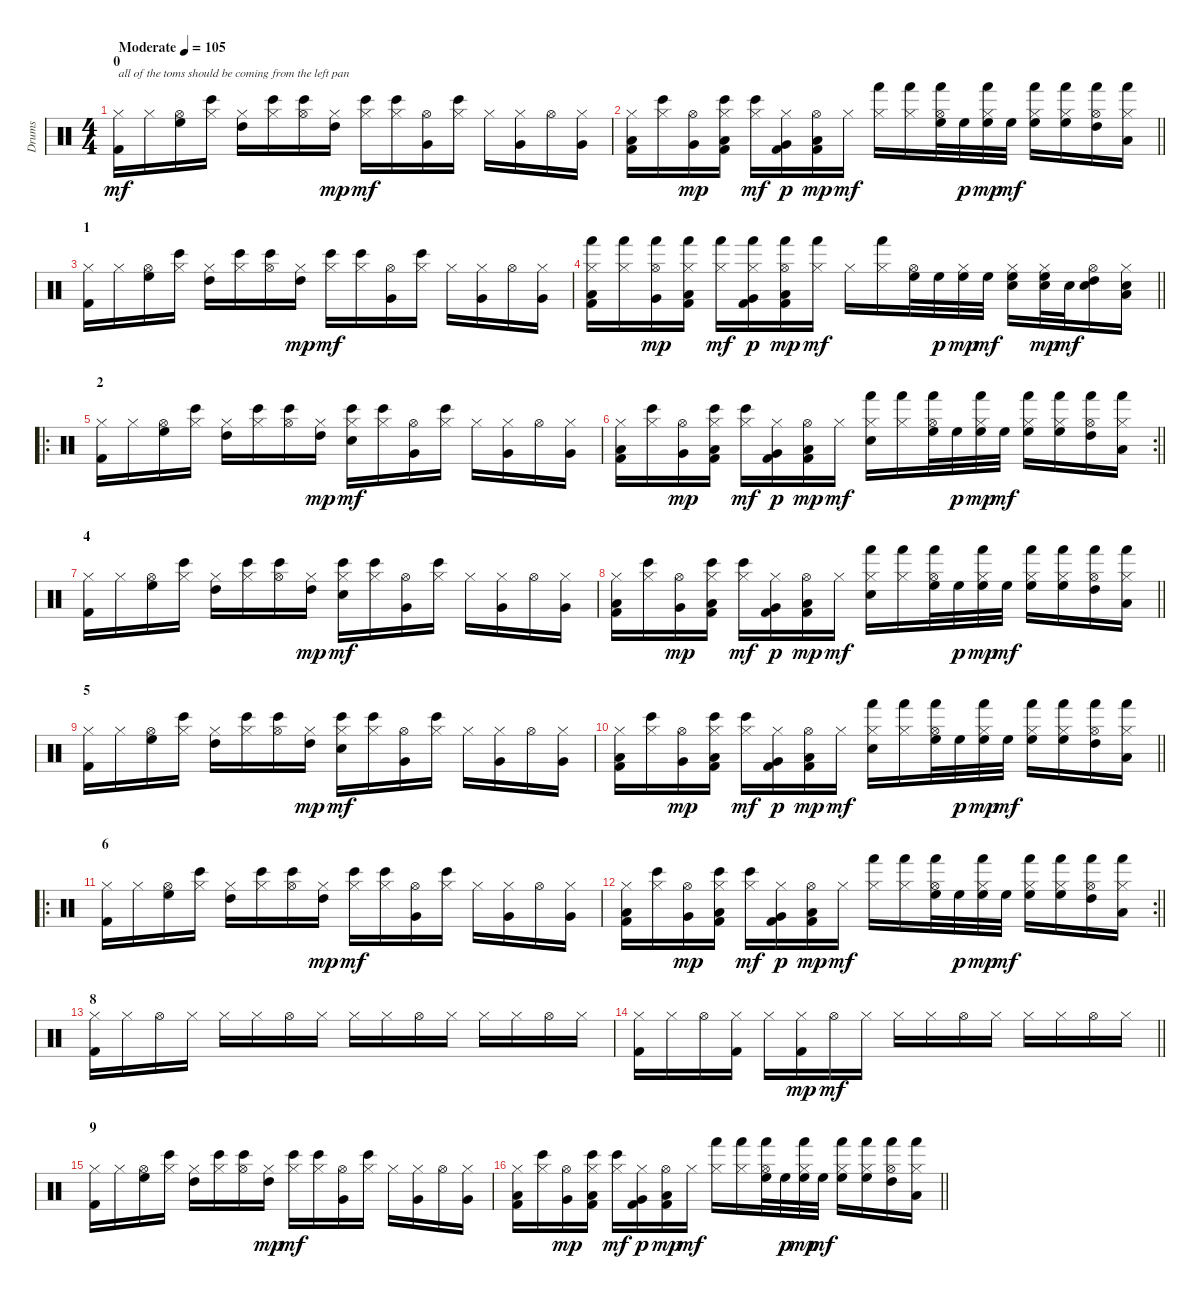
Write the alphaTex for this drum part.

\track ("Drums" "Drums") {instrument percussion}
\staff {score}
\articulation defaults
\ts (4 4)
\section ("" "0")
\tempo (105 "Moderate")
\clef neutral
\ks c
("Hi-Hat (closed)" "Kick (hit) 2").16{txt "all of the toms should be coming from the left pan" dy mf} "Hi-Hat (closed)".16 ("Hi-Hat (open)" "High Floor Tom (hit)").16 ("Bongo High (hit)" "Hi-Hat (closed)").16 ("Hi-Hat (closed)" "High Tom (hit)").16 ("Bongo High (hit)" "Hi-Hat (closed)").16 ("Bongo High (hit)" "Hi-Hat (open)").16 ("Hi-Hat (closed)" "High Tom (hit)").16{dy mp} ("Bongo High (hit)" "Hi-Hat (closed)").16{dy mf} ("Bongo High (hit)" "Hi-Hat (closed)").16 ("Hi-Hat (open)" "Very Low Tom (hit)").16 ("Bongo High (hit)" "Hi-Hat (closed)").16 "Hi-Hat (closed)".16 ("Hi-Hat (closed)" "Very Low Tom (hit)").16 "Hi-Hat (open)".16 ("Hi-Hat (closed)" "Very Low Tom (hit)").16 |
\barLineRight lightlight
("Hi-Hat (closed)" "Kick (hit) 2" "Low Floor Tom (hit)").16 ("Bongo High (hit)" "Hi-Hat (closed)").16 ("Hi-Hat (open)" "Very Low Tom (hit)").16{dy mp} ("Bongo High (hit)" "Hi-Hat (closed)" "Kick (hit) 2" "Low Floor Tom (hit)").16 ("Bongo High (hit)" "Hi-Hat (closed)").16{dy mf} ("Hi-Hat (closed)" "Kick (hit) 2" "Very Low Tom (hit)").16{dy p} ("Hi-Hat (open)" "Kick (hit) 2" "Low Floor Tom (hit)").16{dy mp} "Hi-Hat (closed)".16{dy mf} ("Hand (hit)" "Hi-Hat (closed)").16 ("Hand (hit)" "Hi-Hat (closed)").16 ("Hand (hit)" "Hi-Hat (open)" "High Floor Tom (hit)").32 "High Floor Tom (hit)".32{dy p} ("Hand (hit)" "Hi-Hat (closed)" "High Floor Tom (hit)").32{dy mp} "High Floor Tom (hit)".32{dy mf} ("Hand (hit)" "Hi-Hat (closed)" "High Floor Tom (hit)").16 ("Hand (hit)" "Hi-Hat (closed)" "High Floor Tom (hit)").16 ("Hand (hit)" "Hi-Hat (open)" "High Tom (hit)").16 ("Hand (hit)" "Hi-Hat (closed)" "Low Tom (hit)").16 |
\section ("" "1")
("Hi-Hat (closed)" "Kick (hit) 2").16 "Hi-Hat (closed)".16 ("Hi-Hat (open)" "High Floor Tom (hit)").16 ("Bongo High (hit)" "Hi-Hat (closed)").16 ("Hi-Hat (closed)" "High Tom (hit)").16 ("Bongo High (hit)" "Hi-Hat (closed)").16 ("Bongo High (hit)" "Hi-Hat (open)").16 ("Hi-Hat (closed)" "High Tom (hit)").16{dy mp} ("Bongo High (hit)" "Hi-Hat (closed)").16{dy mf} ("Bongo High (hit)" "Hi-Hat (closed)").16 ("Hi-Hat (open)" "Very Low Tom (hit)").16 ("Bongo High (hit)" "Hi-Hat (closed)").16 "Hi-Hat (closed)".16 ("Hi-Hat (closed)" "Very Low Tom (hit)").16 "Hi-Hat (open)".16 ("Hi-Hat (closed)" "Very Low Tom (hit)").16 |
\barLineRight lightlight
("Hand (hit)" "Hi-Hat (closed)" "Kick (hit) 2" "Low Floor Tom (hit)").16 ("Hand (hit)" "Hi-Hat (closed)").16 ("Hand (hit)" "Hi-Hat (open)" "Very Low Tom (hit)").16{dy mp} ("Hand (hit)" "Hi-Hat (closed)" "Kick (hit) 2" "Low Floor Tom (hit)").16 ("Hand (hit)" "Hi-Hat (closed)").16{dy mf} ("Hand (hit)" "Hi-Hat (closed)" "Kick (hit) 2" "Very Low Tom (hit)").16{dy p} ("Hand (hit)" "Hi-Hat (open)" "Kick (hit) 2" "Low Floor Tom (hit)").16{dy mp} ("Hand (hit)" "Hi-Hat (closed)").16{dy mf} "Hi-Hat (closed)".16 ("Hand (hit)" "Hi-Hat (closed)").16 ("Hi-Hat (open)" "High Floor Tom (hit)").32 "High Floor Tom (hit)".32{dy p} ("Hi-Hat (closed)" "High Floor Tom (hit)").32{dy mp} "High Floor Tom (hit)".32{dy mf} ("Hi-Hat (closed)" "Electric Snare (hit)" "High Floor Tom (hit)").16 ("Hi-Hat (closed)" "Electric Snare (hit)" "High Floor Tom (hit)").32{dy mp} "Electric Snare (hit)".32{dy mf} ("Hi-Hat (open)" "Electric Snare (hit)" "High Tom (hit)").16 ("Hi-Hat (closed)" "Electric Snare (hit)" "Low Tom (hit)").16 |
\ro
\section ("" "2")
("Hi-Hat (closed)" "Kick (hit) 2").16 "Hi-Hat (closed)".16 ("Hi-Hat (open)" "High Floor Tom (hit)").16 ("Bongo High (hit)" "Hi-Hat (closed)").16 ("Hi-Hat (closed)" "High Tom (hit)").16 ("Bongo High (hit)" "Hi-Hat (closed)").16 ("Bongo High (hit)" "Hi-Hat (open)").16 ("Hi-Hat (closed)" "High Tom (hit)").16{dy mp} ("Bongo High (hit)" "Hi-Hat (closed)" "Electric Snare (hit)").16{dy mf} ("Bongo High (hit)" "Hi-Hat (closed)").16 ("Hi-Hat (open)" "Very Low Tom (hit)").16 ("Bongo High (hit)" "Hi-Hat (closed)").16 "Hi-Hat (closed)".16 ("Hi-Hat (closed)" "Very Low Tom (hit)").16 "Hi-Hat (open)".16 ("Hi-Hat (closed)" "Very Low Tom (hit)").16 |
\rc 2
\barLineRight lightlight
("Hi-Hat (closed)" "Kick (hit) 2" "Low Floor Tom (hit)").16 ("Bongo High (hit)" "Hi-Hat (closed)").16 ("Hi-Hat (open)" "Very Low Tom (hit)").16{dy mp} ("Bongo High (hit)" "Hi-Hat (closed)" "Kick (hit) 2" "Low Floor Tom (hit)").16 ("Bongo High (hit)" "Hi-Hat (closed)").16{dy mf} ("Hi-Hat (closed)" "Kick (hit) 2" "Very Low Tom (hit)").16{dy p} ("Hi-Hat (open)" "Kick (hit) 2" "Low Floor Tom (hit)").16{dy mp} "Hi-Hat (closed)".16{dy mf} ("Hand (hit)" "Hi-Hat (closed)" "Electric Snare (hit)").16 ("Hand (hit)" "Hi-Hat (closed)").16 ("Hand (hit)" "Hi-Hat (open)" "High Floor Tom (hit)").32 "High Floor Tom (hit)".32{dy p} ("Hand (hit)" "Hi-Hat (closed)" "High Floor Tom (hit)").32{dy mp} "High Floor Tom (hit)".32{dy mf} ("Hand (hit)" "Hi-Hat (closed)" "High Floor Tom (hit)").16 ("Hand (hit)" "Hi-Hat (closed)" "High Floor Tom (hit)").16 ("Hand (hit)" "Hi-Hat (open)" "High Tom (hit)").16 ("Hand (hit)" "Hi-Hat (closed)" "Low Tom (hit)").16 |
\section ("" "4")
("Hi-Hat (closed)" "Kick (hit) 2").16 "Hi-Hat (closed)".16 ("Hi-Hat (open)" "High Floor Tom (hit)").16 ("Bongo High (hit)" "Hi-Hat (closed)").16 ("Hi-Hat (closed)" "High Tom (hit)").16 ("Bongo High (hit)" "Hi-Hat (closed)").16 ("Bongo High (hit)" "Hi-Hat (open)").16 ("Hi-Hat (closed)" "High Tom (hit)").16{dy mp} ("Bongo High (hit)" "Hi-Hat (closed)" "Electric Snare (hit)").16{dy mf} ("Bongo High (hit)" "Hi-Hat (closed)").16 ("Hi-Hat (open)" "Very Low Tom (hit)").16 ("Bongo High (hit)" "Hi-Hat (closed)").16 "Hi-Hat (closed)".16 ("Hi-Hat (closed)" "Very Low Tom (hit)").16 "Hi-Hat (open)".16 ("Hi-Hat (closed)" "Very Low Tom (hit)").16 |
\barLineRight lightlight
("Hi-Hat (closed)" "Kick (hit) 2" "Low Floor Tom (hit)").16 ("Bongo High (hit)" "Hi-Hat (closed)").16 ("Hi-Hat (open)" "Very Low Tom (hit)").16{dy mp} ("Bongo High (hit)" "Hi-Hat (closed)" "Kick (hit) 2" "Low Floor Tom (hit)").16 ("Bongo High (hit)" "Hi-Hat (closed)").16{dy mf} ("Hi-Hat (closed)" "Kick (hit) 2" "Very Low Tom (hit)").16{dy p} ("Hi-Hat (open)" "Kick (hit) 2" "Low Floor Tom (hit)").16{dy mp} "Hi-Hat (closed)".16{dy mf} ("Hand (hit)" "Hi-Hat (closed)" "Electric Snare (hit)").16 ("Hand (hit)" "Hi-Hat (closed)").16 ("Hand (hit)" "Hi-Hat (open)" "High Floor Tom (hit)").32 "High Floor Tom (hit)".32{dy p} ("Hand (hit)" "Hi-Hat (closed)" "High Floor Tom (hit)").32{dy mp} "High Floor Tom (hit)".32{dy mf} ("Hand (hit)" "Hi-Hat (closed)" "High Floor Tom (hit)").16 ("Hand (hit)" "Hi-Hat (closed)" "High Floor Tom (hit)").16 ("Hand (hit)" "Hi-Hat (open)" "High Tom (hit)").16 ("Hand (hit)" "Hi-Hat (closed)" "Low Tom (hit)").16 |
\section ("" "5")
("Hi-Hat (closed)" "Kick (hit) 2").16 "Hi-Hat (closed)".16 ("Hi-Hat (open)" "High Floor Tom (hit)").16 ("Bongo High (hit)" "Hi-Hat (closed)").16 ("Hi-Hat (closed)" "High Tom (hit)").16 ("Bongo High (hit)" "Hi-Hat (closed)").16 ("Bongo High (hit)" "Hi-Hat (open)").16 ("Hi-Hat (closed)" "High Tom (hit)").16{dy mp} ("Bongo High (hit)" "Hi-Hat (closed)" "Electric Snare (hit)").16{dy mf} ("Bongo High (hit)" "Hi-Hat (closed)").16 ("Hi-Hat (open)" "Very Low Tom (hit)").16 ("Bongo High (hit)" "Hi-Hat (closed)").16 "Hi-Hat (closed)".16 ("Hi-Hat (closed)" "Very Low Tom (hit)").16 "Hi-Hat (open)".16 ("Hi-Hat (closed)" "Very Low Tom (hit)").16 |
\barLineRight lightlight
("Hi-Hat (closed)" "Kick (hit) 2" "Low Floor Tom (hit)").16 ("Bongo High (hit)" "Hi-Hat (closed)").16 ("Hi-Hat (open)" "Very Low Tom (hit)").16{dy mp} ("Bongo High (hit)" "Hi-Hat (closed)" "Kick (hit) 2" "Low Floor Tom (hit)").16 ("Bongo High (hit)" "Hi-Hat (closed)").16{dy mf} ("Hi-Hat (closed)" "Kick (hit) 2" "Very Low Tom (hit)").16{dy p} ("Hi-Hat (open)" "Kick (hit) 2" "Low Floor Tom (hit)").16{dy mp} "Hi-Hat (closed)".16{dy mf} ("Hand (hit)" "Hi-Hat (closed)" "Electric Snare (hit)").16 ("Hand (hit)" "Hi-Hat (closed)").16 ("Hand (hit)" "Hi-Hat (open)" "High Floor Tom (hit)").32 "High Floor Tom (hit)".32{dy p} ("Hand (hit)" "Hi-Hat (closed)" "High Floor Tom (hit)").32{dy mp} "High Floor Tom (hit)".32{dy mf} ("Hand (hit)" "Hi-Hat (closed)" "High Floor Tom (hit)").16 ("Hand (hit)" "Hi-Hat (closed)" "High Floor Tom (hit)").16 ("Hand (hit)" "Hi-Hat (open)" "High Tom (hit)").16 ("Hand (hit)" "Hi-Hat (closed)" "Low Tom (hit)").16 |
\ro
\section ("" "6")
("Hi-Hat (closed)" "Kick (hit) 2").16 "Hi-Hat (closed)".16 ("Hi-Hat (open)" "High Floor Tom (hit)").16 ("Bongo High (hit)" "Hi-Hat (closed)").16 ("Hi-Hat (closed)" "High Tom (hit)").16 ("Bongo High (hit)" "Hi-Hat (closed)").16 ("Bongo High (hit)" "Hi-Hat (open)").16 ("Hi-Hat (closed)" "High Tom (hit)").16{dy mp} ("Bongo High (hit)" "Hi-Hat (closed)").16{dy mf} ("Bongo High (hit)" "Hi-Hat (closed)").16 ("Hi-Hat (open)" "Very Low Tom (hit)").16 ("Bongo High (hit)" "Hi-Hat (closed)").16 "Hi-Hat (closed)".16 ("Hi-Hat (closed)" "Very Low Tom (hit)").16 "Hi-Hat (open)".16 ("Hi-Hat (closed)" "Very Low Tom (hit)").16 |
\rc 2
\barLineRight lightlight
("Hi-Hat (closed)" "Kick (hit) 2" "Low Floor Tom (hit)").16 ("Bongo High (hit)" "Hi-Hat (closed)").16 ("Hi-Hat (open)" "Very Low Tom (hit)").16{dy mp} ("Bongo High (hit)" "Hi-Hat (closed)" "Kick (hit) 2" "Low Floor Tom (hit)").16 ("Bongo High (hit)" "Hi-Hat (closed)").16{dy mf} ("Hi-Hat (closed)" "Kick (hit) 2" "Very Low Tom (hit)").16{dy p} ("Hi-Hat (open)" "Kick (hit) 2" "Low Floor Tom (hit)").16{dy mp} "Hi-Hat (closed)".16{dy mf} ("Hand (hit)" "Hi-Hat (closed)").16 ("Hand (hit)" "Hi-Hat (closed)").16 ("Hand (hit)" "Hi-Hat (open)" "High Floor Tom (hit)").32 "High Floor Tom (hit)".32{dy p} ("Hand (hit)" "Hi-Hat (closed)" "High Floor Tom (hit)").32{dy mp} "High Floor Tom (hit)".32{dy mf} ("Hand (hit)" "Hi-Hat (closed)" "High Floor Tom (hit)").16 ("Hand (hit)" "Hi-Hat (closed)" "High Floor Tom (hit)").16 ("Hand (hit)" "Hi-Hat (open)" "High Tom (hit)").16 ("Hand (hit)" "Hi-Hat (closed)" "Low Tom (hit)").16 |
\section ("" "8")
("Hi-Hat (closed)" "Kick (hit) 2").16 "Hi-Hat (closed)".16 "Hi-Hat (open)".16 "Hi-Hat (closed)".16 "Hi-Hat (closed)".16 "Hi-Hat (closed)".16 "Hi-Hat (open)".16 "Hi-Hat (closed)".16 "Hi-Hat (closed)".16 "Hi-Hat (closed)".16 "Hi-Hat (open)".16 "Hi-Hat (closed)".16 "Hi-Hat (closed)".16 "Hi-Hat (closed)".16 "Hi-Hat (open)".16 "Hi-Hat (closed)".16 |
\barLineRight lightlight
("Hi-Hat (closed)" "Kick (hit) 2").16 "Hi-Hat (closed)".16 "Hi-Hat (open)".16 ("Hi-Hat (closed)" "Kick (hit) 2").16 "Hi-Hat (closed)".16 ("Hi-Hat (closed)" "Kick (hit) 2").16{dy mp} "Hi-Hat (open)".16{dy mf} "Hi-Hat (closed)".16 "Hi-Hat (closed)".16 "Hi-Hat (closed)".16 "Hi-Hat (open)".16 "Hi-Hat (closed)".16 "Hi-Hat (closed)".16 "Hi-Hat (closed)".16 "Hi-Hat (open)".16 "Hi-Hat (closed)".16 |
\section ("" "9")
("Hi-Hat (closed)" "Kick (hit) 2").16 "Hi-Hat (closed)".16 ("Hi-Hat (open)" "High Floor Tom (hit)").16 ("Bongo High (hit)" "Hi-Hat (closed)").16 ("Hi-Hat (closed)" "High Tom (hit)").16 ("Bongo High (hit)" "Hi-Hat (closed)").16 ("Bongo High (hit)" "Hi-Hat (open)").16 ("Hi-Hat (closed)" "High Tom (hit)").16{dy mp} ("Bongo High (hit)" "Hi-Hat (closed)").16{dy mf} ("Bongo High (hit)" "Hi-Hat (closed)").16 ("Hi-Hat (open)" "Very Low Tom (hit)").16 ("Bongo High (hit)" "Hi-Hat (closed)").16 "Hi-Hat (closed)".16 ("Hi-Hat (closed)" "Very Low Tom (hit)").16 "Hi-Hat (open)".16 ("Hi-Hat (closed)" "Very Low Tom (hit)").16 |
\barLineRight lightlight
("Hi-Hat (closed)" "Kick (hit) 2" "Low Floor Tom (hit)").16 ("Bongo High (hit)" "Hi-Hat (closed)").16 ("Hi-Hat (open)" "Very Low Tom (hit)").16{dy mp} ("Bongo High (hit)" "Hi-Hat (closed)" "Kick (hit) 2" "Low Floor Tom (hit)").16 ("Bongo High (hit)" "Hi-Hat (closed)").16{dy mf} ("Hi-Hat (closed)" "Kick (hit) 2" "Very Low Tom (hit)").16{dy p} ("Hi-Hat (open)" "Kick (hit) 2" "Low Floor Tom (hit)").16{dy mp} "Hi-Hat (closed)".16{dy mf} ("Hand (hit)" "Hi-Hat (closed)").16 ("Hand (hit)" "Hi-Hat (closed)").16 ("Hand (hit)" "Hi-Hat (open)" "High Floor Tom (hit)").32 "High Floor Tom (hit)".32{dy p} ("Hand (hit)" "Hi-Hat (closed)" "High Floor Tom (hit)").32{dy mp} "High Floor Tom (hit)".32{dy mf} ("Hand (hit)" "Hi-Hat (closed)" "High Floor Tom (hit)").16 ("Hand (hit)" "Hi-Hat (closed)" "High Floor Tom (hit)").16 ("Hand (hit)" "Hi-Hat (open)" "High Tom (hit)").16 ("Hand (hit)" "Hi-Hat (closed)" "Low Tom (hit)").16
